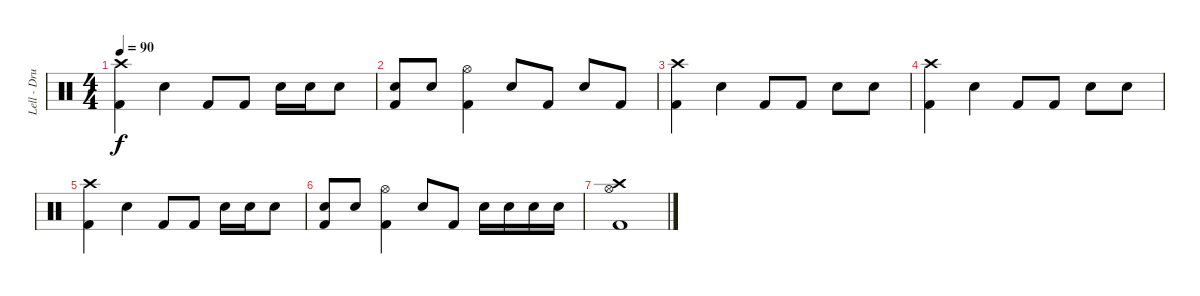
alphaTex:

\track ("Lell - Drums" "Lell - Dru") {instrument percussion}
\staff {score}
\articulation defaults
\ts (4 4)
\tempo 90
\clef neutral
\ks c
("Crash high (hit)" "Kick (hit) 2").4{dy f} "Snare (hit) 2".4 "Kick (hit) 2".8 "Kick (hit) 2".8 "Snare (hit) 2".16 "Snare (hit) 2".16 "Snare (hit) 2".8 |
("Snare (hit) 2" "Kick (hit) 2").8 "Snare (hit) 2".8 ("Hi-Hat (open)" "Kick (hit) 2").4 "Snare (hit) 2".8 "Kick (hit) 2".8 "Snare (hit) 2".8 "Kick (hit) 2".8 |
("Crash high (hit)" "Kick (hit) 2").4 "Snare (hit) 2".4 "Kick (hit) 2".8 "Kick (hit) 2".8 "Snare (hit) 2".8 "Snare (hit) 2".8 |
("Crash high (hit)" "Kick (hit) 2").4 "Snare (hit) 2".4 "Kick (hit) 2".8 "Kick (hit) 2".8 "Snare (hit) 2".8 "Snare (hit) 2".8 |
("Crash high (hit)" "Kick (hit) 2").4 "Snare (hit) 2".4 "Kick (hit) 2".8 "Kick (hit) 2".8 "Snare (hit) 2".16 "Snare (hit) 2".16 "Snare (hit) 2".8 |
("Snare (hit) 2" "Kick (hit) 2").8 "Snare (hit) 2".8 ("Hi-Hat (open)" "Kick (hit) 2").4 "Snare (hit) 2".8 "Kick (hit) 2".8 "Snare (hit) 2".16 "Snare (hit) 2".16 "Snare (hit) 2".16 "Snare (hit) 2".16 |
("Crash high (hit)" "Hi-Hat (open)" "Kick (hit) 2").1
